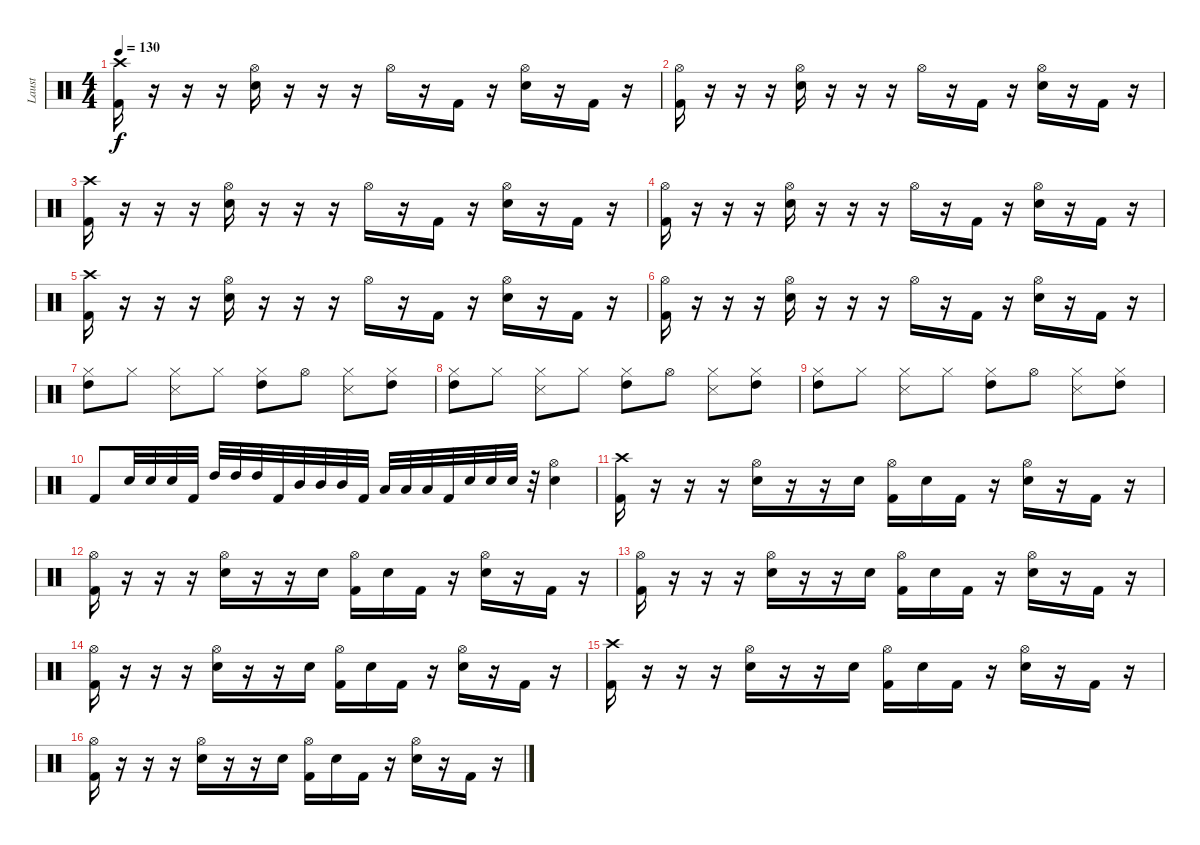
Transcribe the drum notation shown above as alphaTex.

\track ("Laust" "Laust") {instrument percussion}
\staff {score}
\articulation defaults
\ts (4 4)
\tempo 130
\clef neutral
\ks c
("Crash high (hit)" "Kick (hit) 2").16{dy f} r.16 r.16 r.16 ("Hi-Hat (open)" "Snare (hit) 2").16 r.16 r.16 r.16 "Hi-Hat (open)".16 r.16 "Kick (hit) 2".16 r.16 ("Hi-Hat (open)" "Snare (hit) 2").16 r.16 "Kick (hit) 2".16 r.16 |
("Hi-Hat (open)" "Kick (hit) 2").16 r.16 r.16 r.16 ("Hi-Hat (open)" "Snare (hit) 2").16 r.16 r.16 r.16 "Hi-Hat (open)".16 r.16 "Kick (hit) 2".16 r.16 ("Hi-Hat (open)" "Snare (hit) 2").16 r.16 "Kick (hit) 2".16 r.16 |
("Crash high (hit)" "Kick (hit) 2").16 r.16 r.16 r.16 ("Hi-Hat (open)" "Snare (hit) 2").16 r.16 r.16 r.16 "Hi-Hat (open)".16 r.16 "Kick (hit) 2".16 r.16 ("Hi-Hat (open)" "Snare (hit) 2").16 r.16 "Kick (hit) 2".16 r.16 |
("Hi-Hat (open)" "Kick (hit) 2").16 r.16 r.16 r.16 ("Hi-Hat (open)" "Snare (hit) 2").16 r.16 r.16 r.16 "Hi-Hat (open)".16 r.16 "Kick (hit) 2".16 r.16 ("Hi-Hat (open)" "Snare (hit) 2").16 r.16 "Kick (hit) 2".16 r.16 |
("Crash high (hit)" "Kick (hit) 2").16 r.16 r.16 r.16 ("Hi-Hat (open)" "Snare (hit) 2").16 r.16 r.16 r.16 "Hi-Hat (open)".16 r.16 "Kick (hit) 2".16 r.16 ("Hi-Hat (open)" "Snare (hit) 2").16 r.16 "Kick (hit) 2".16 r.16 |
("Hi-Hat (open)" "Kick (hit) 2").16 r.16 r.16 r.16 ("Hi-Hat (open)" "Snare (hit) 2").16 r.16 r.16 r.16 "Hi-Hat (open)".16 r.16 "Kick (hit) 2".16 r.16 ("Hi-Hat (open)" "Snare (hit) 2").16 r.16 "Kick (hit) 2".16 r.16 |
("Hi-Hat (closed)" "High Tom (hit)").8 "Hi-Hat (closed)".8 ("Hi-Hat (closed)" "Snare (side stick) 3").8 "Hi-Hat (closed)".8 ("Hi-Hat (closed)" "High Tom (hit)").8 "Hi-Hat (open)".8 ("Hi-Hat (closed)" "Snare (side stick) 3").8 ("Hi-Hat (closed)" "High Tom (hit)").8 |
("Hi-Hat (closed)" "High Tom (hit)").8 "Hi-Hat (closed)".8 ("Hi-Hat (closed)" "Snare (side stick) 3").8 "Hi-Hat (closed)".8 ("Hi-Hat (closed)" "High Tom (hit)").8 "Hi-Hat (open)".8 ("Hi-Hat (closed)" "Snare (side stick) 3").8 ("Hi-Hat (closed)" "High Tom (hit)").8 |
("Hi-Hat (closed)" "High Tom (hit)").8 "Hi-Hat (closed)".8 ("Hi-Hat (closed)" "Snare (side stick) 3").8 "Hi-Hat (closed)".8 ("Hi-Hat (closed)" "High Tom (hit)").8 "Hi-Hat (open)".8 ("Hi-Hat (closed)" "Snare (side stick) 3").8 ("Hi-Hat (closed)" "High Tom (hit)").8 |
"Kick (hit) 2".8 "Snare (hit) 2".32 "Snare (hit) 2".32 "Snare (hit) 2".32 "Kick (hit) 2".32 "High Tom (hit)".32 "High Tom (hit)".32 "High Tom (hit)".32 "Kick (hit) 2".32 "Mid Tom (hit)".32 "Mid Tom (hit)".32 "Mid Tom (hit)".32 "Kick (hit) 2".32 "Low Floor Tom (hit)".32 "Low Floor Tom (hit)".32 "Low Floor Tom (hit)".32 "Kick (hit) 2".32 "Snare (hit) 2".32 "Snare (hit) 2".32 "Snare (hit) 2".32 r.32 ("Hi-Hat (open)" "Snare (hit) 2").4 |
("Crash high (hit)" "Kick (hit) 2").16 r.16 r.16 r.16 ("Hi-Hat (open)" "Snare (hit) 2").16 r.16 r.16 "Snare (hit) 2".16 ("Hi-Hat (open)" "Kick (hit) 2").16 "Snare (hit) 2".16 "Kick (hit) 2".16 r.16 ("Hi-Hat (open)" "Snare (hit) 2").16 r.16 "Kick (hit) 2".16 r.16 |
("Hi-Hat (open)" "Kick (hit) 2").16 r.16 r.16 r.16 ("Hi-Hat (open)" "Snare (hit) 2").16 r.16 r.16 "Snare (hit) 2".16 ("Hi-Hat (open)" "Kick (hit) 2").16 "Snare (hit) 2".16 "Kick (hit) 2".16 r.16 ("Hi-Hat (open)" "Snare (hit) 2").16 r.16 "Kick (hit) 2".16 r.16 |
("Hi-Hat (open)" "Kick (hit) 2").16 r.16 r.16 r.16 ("Hi-Hat (open)" "Snare (hit) 2").16 r.16 r.16 "Snare (hit) 2".16 ("Hi-Hat (open)" "Kick (hit) 2").16 "Snare (hit) 2".16 "Kick (hit) 2".16 r.16 ("Hi-Hat (open)" "Snare (hit) 2").16 r.16 "Kick (hit) 2".16 r.16 |
("Hi-Hat (open)" "Kick (hit) 2").16 r.16 r.16 r.16 ("Hi-Hat (open)" "Snare (hit) 2").16 r.16 r.16 "Snare (hit) 2".16 ("Hi-Hat (open)" "Kick (hit) 2").16 "Snare (hit) 2".16 "Kick (hit) 2".16 r.16 ("Hi-Hat (open)" "Snare (hit) 2").16 r.16 "Kick (hit) 2".16 r.16 |
("Crash high (hit)" "Kick (hit) 2").16 r.16 r.16 r.16 ("Hi-Hat (open)" "Snare (hit) 2").16 r.16 r.16 "Snare (hit) 2".16 ("Hi-Hat (open)" "Kick (hit) 2").16 "Snare (hit) 2".16 "Kick (hit) 2".16 r.16 ("Hi-Hat (open)" "Snare (hit) 2").16 r.16 "Kick (hit) 2".16 r.16 |
("Hi-Hat (open)" "Kick (hit) 2").16 r.16 r.16 r.16 ("Hi-Hat (open)" "Snare (hit) 2").16 r.16 r.16 "Snare (hit) 2".16 ("Hi-Hat (open)" "Kick (hit) 2").16 "Snare (hit) 2".16 "Kick (hit) 2".16 r.16 ("Hi-Hat (open)" "Snare (hit) 2").16 r.16 "Kick (hit) 2".16 r.16
